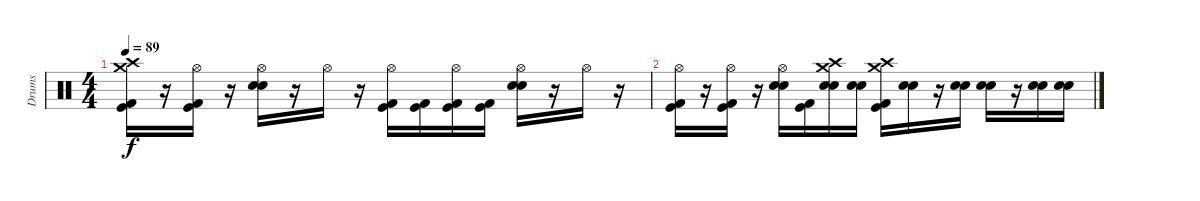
\track ("Drums" "Drums") {instrument percussion}
\staff {score}
\articulation defaults
\ts (4 4)
\tempo 89
\clef neutral
\ks c
("Crash medium (hit)" "Crash high (hit)" "Kick (hit) 2" "Kick (hit)").16{dy f} r.16 ("Hi-Hat (open)" "Kick (hit) 2" "Kick (hit)").16 r.16 ("Hi-Hat (open)" "Electric Snare (hit)" "Snare (hit) 2").16 r.16 "Hi-Hat (open)".16 r.16 ("Hi-Hat (open)" "Kick (hit) 2" "Kick (hit)").16 ("Kick (hit) 2" "Kick (hit)").16 ("Hi-Hat (open)" "Kick (hit) 2" "Kick (hit)").16 ("Kick (hit) 2" "Kick (hit)").16 ("Hi-Hat (open)" "Electric Snare (hit)" "Snare (hit) 2").16 r.16 "Hi-Hat (open)".16 r.16 |
("Hi-Hat (open)" "Kick (hit) 2" "Kick (hit)").16 r.16 ("Hi-Hat (open)" "Kick (hit) 2" "Kick (hit)").16 r.16 ("Hi-Hat (open)" "Electric Snare (hit)" "Snare (hit) 2").16 ("Kick (hit) 2" "Kick (hit)").16 ("Crash medium (hit)" "Crash high (hit)" "Electric Snare (hit)" "Snare (hit) 2").16 ("Electric Snare (hit)" "Snare (hit) 2").16 ("Crash medium (hit)" "Crash high (hit)" "Kick (hit) 2" "Kick (hit)").16 ("Electric Snare (hit)" "Snare (hit) 2").16 r.16 ("Electric Snare (hit)" "Snare (hit) 2").16 ("Electric Snare (hit)" "Snare (hit) 2").16 r.16 ("Electric Snare (hit)" "Snare (hit) 2").16 ("Electric Snare (hit)" "Snare (hit) 2").16
